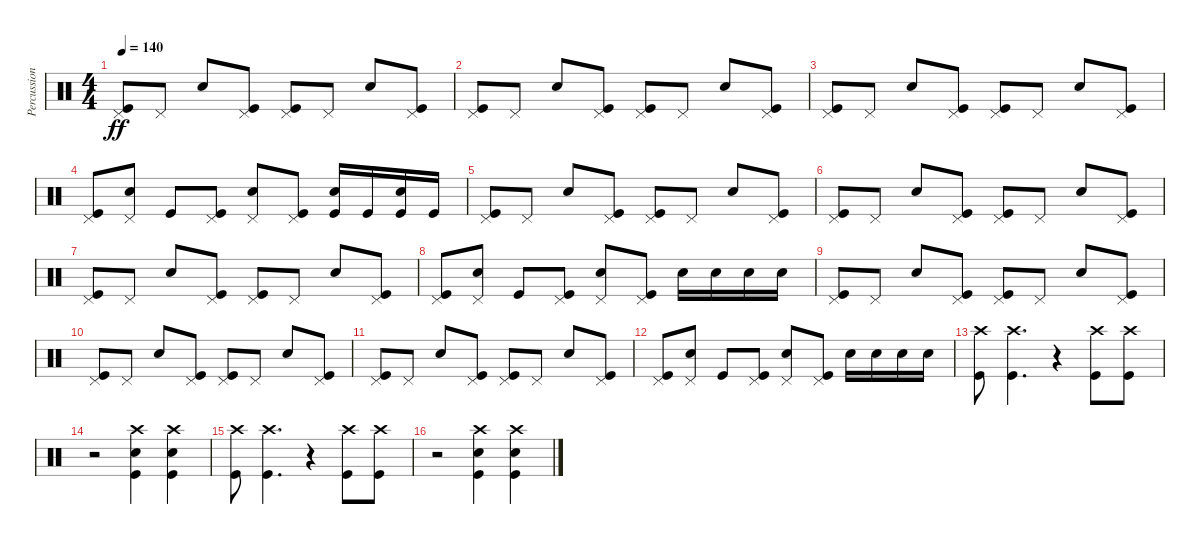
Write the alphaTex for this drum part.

\track ("Percussion" "Percussion") {instrument percussion}
\staff {score}
\articulation defaults
\ts (4 4)
\tempo 140
\clef neutral
\ks c
("Pedal Hi-Hat (hit)" "Kick (hit)").8{dy ff} "Pedal Hi-Hat (hit)".8 "Snare (hit) 2".8 ("Pedal Hi-Hat (hit)" "Kick (hit)").8 ("Pedal Hi-Hat (hit)" "Kick (hit)").8 "Pedal Hi-Hat (hit)".8 "Snare (hit) 2".8 ("Pedal Hi-Hat (hit)" "Kick (hit)").8 |
("Pedal Hi-Hat (hit)" "Kick (hit)").8 "Pedal Hi-Hat (hit)".8 "Snare (hit) 2".8 ("Pedal Hi-Hat (hit)" "Kick (hit)").8 ("Pedal Hi-Hat (hit)" "Kick (hit)").8 "Pedal Hi-Hat (hit)".8 "Snare (hit) 2".8 ("Pedal Hi-Hat (hit)" "Kick (hit)").8 |
("Pedal Hi-Hat (hit)" "Kick (hit)").8 "Pedal Hi-Hat (hit)".8 "Snare (hit) 2".8 ("Pedal Hi-Hat (hit)" "Kick (hit)").8 ("Pedal Hi-Hat (hit)" "Kick (hit)").8 "Pedal Hi-Hat (hit)".8 "Snare (hit) 2".8 ("Pedal Hi-Hat (hit)" "Kick (hit)").8 |
("Pedal Hi-Hat (hit)" "Kick (hit)").8 ("Pedal Hi-Hat (hit)" "Snare (hit) 2").8 "Kick (hit)".8 ("Pedal Hi-Hat (hit)" "Kick (hit)").8 ("Pedal Hi-Hat (hit)" "Snare (hit) 2").8 ("Pedal Hi-Hat (hit)" "Kick (hit)").8 ("Kick (hit)" "Snare (hit) 2").16 "Kick (hit)".16 ("Kick (hit)" "Snare (hit) 2").16 "Kick (hit)".16 |
("Pedal Hi-Hat (hit)" "Kick (hit)").8 "Pedal Hi-Hat (hit)".8 "Snare (hit) 2".8 ("Pedal Hi-Hat (hit)" "Kick (hit)").8 ("Pedal Hi-Hat (hit)" "Kick (hit)").8 "Pedal Hi-Hat (hit)".8 "Snare (hit) 2".8 ("Pedal Hi-Hat (hit)" "Kick (hit)").8 |
("Pedal Hi-Hat (hit)" "Kick (hit)").8 "Pedal Hi-Hat (hit)".8 "Snare (hit) 2".8 ("Pedal Hi-Hat (hit)" "Kick (hit)").8 ("Pedal Hi-Hat (hit)" "Kick (hit)").8 "Pedal Hi-Hat (hit)".8 "Snare (hit) 2".8 ("Pedal Hi-Hat (hit)" "Kick (hit)").8 |
("Pedal Hi-Hat (hit)" "Kick (hit)").8 "Pedal Hi-Hat (hit)".8 "Snare (hit) 2".8 ("Pedal Hi-Hat (hit)" "Kick (hit)").8 ("Pedal Hi-Hat (hit)" "Kick (hit)").8 "Pedal Hi-Hat (hit)".8 "Snare (hit) 2".8 ("Pedal Hi-Hat (hit)" "Kick (hit)").8 |
("Pedal Hi-Hat (hit)" "Kick (hit)").8 ("Pedal Hi-Hat (hit)" "Snare (hit) 2").8 "Kick (hit)".8 ("Pedal Hi-Hat (hit)" "Kick (hit)").8 ("Pedal Hi-Hat (hit)" "Snare (hit) 2").8 ("Pedal Hi-Hat (hit)" "Kick (hit)").8 "Snare (hit) 2".16 "Snare (hit) 2".16 "Snare (hit) 2".16 "Snare (hit) 2".16 |
("Pedal Hi-Hat (hit)" "Kick (hit)").8 "Pedal Hi-Hat (hit)".8 "Snare (hit) 2".8 ("Pedal Hi-Hat (hit)" "Kick (hit)").8 ("Pedal Hi-Hat (hit)" "Kick (hit)").8 "Pedal Hi-Hat (hit)".8 "Snare (hit) 2".8 ("Pedal Hi-Hat (hit)" "Kick (hit)").8 |
("Pedal Hi-Hat (hit)" "Kick (hit)").8 "Pedal Hi-Hat (hit)".8 "Snare (hit) 2".8 ("Pedal Hi-Hat (hit)" "Kick (hit)").8 ("Pedal Hi-Hat (hit)" "Kick (hit)").8 "Pedal Hi-Hat (hit)".8 "Snare (hit) 2".8 ("Pedal Hi-Hat (hit)" "Kick (hit)").8 |
("Pedal Hi-Hat (hit)" "Kick (hit)").8 "Pedal Hi-Hat (hit)".8 "Snare (hit) 2".8 ("Pedal Hi-Hat (hit)" "Kick (hit)").8 ("Pedal Hi-Hat (hit)" "Kick (hit)").8 "Pedal Hi-Hat (hit)".8 "Snare (hit) 2".8 ("Pedal Hi-Hat (hit)" "Kick (hit)").8 |
("Pedal Hi-Hat (hit)" "Kick (hit)").8 ("Pedal Hi-Hat (hit)" "Snare (hit) 2").8 "Kick (hit)".8 ("Pedal Hi-Hat (hit)" "Kick (hit)").8 ("Pedal Hi-Hat (hit)" "Snare (hit) 2").8 ("Pedal Hi-Hat (hit)" "Kick (hit)").8 "Snare (hit) 2".16 "Snare (hit) 2".16 "Snare (hit) 2".16 "Snare (hit) 2".16 |
("Crash high (hit)" "Kick (hit)").8 ("Crash high (hit)" "Kick (hit)").4{d} r.4 ("Crash high (hit)" "Kick (hit)").8 ("Crash high (hit)" "Kick (hit)").8 |
r.2 ("Crash high (hit)" "Kick (hit)" "Snare (hit) 2").4 ("Crash high (hit)" "Kick (hit)" "Snare (hit) 2").4 |
("Crash high (hit)" "Kick (hit)").8 ("Crash high (hit)" "Kick (hit)").4{d} r.4 ("Crash high (hit)" "Kick (hit)").8 ("Crash high (hit)" "Kick (hit)").8 |
r.2 ("Crash high (hit)" "Kick (hit)" "Snare (hit) 2").4 ("Crash high (hit)" "Kick (hit)" "Snare (hit) 2").4
